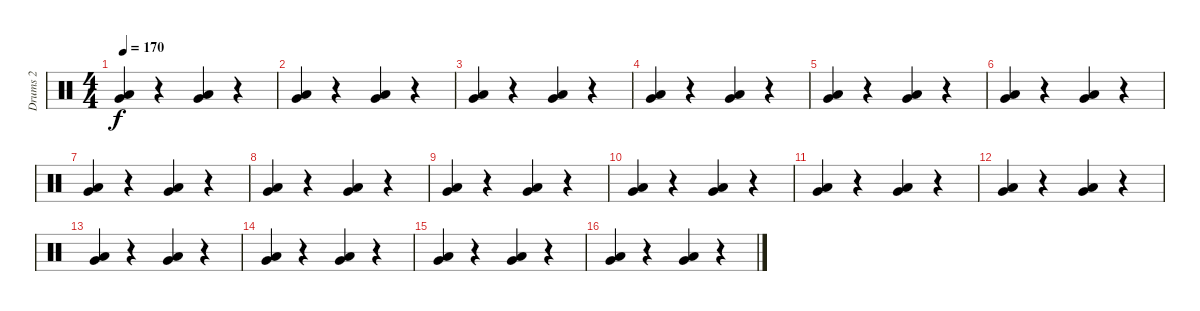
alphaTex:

\track ("Drums 2" "Drums 2") {instrument percussion}
\staff {score}
\articulation defaults
\ts (4 4)
\section ("" "")
\tempo 170
\clef neutral
\ks c
("Very Low Tom (hit)" "Low Tom (hit)").4{dy f} r.4 ("Very Low Tom (hit)" "Low Tom (hit)").4 r.4 |
("Very Low Tom (hit)" "Low Tom (hit)").4 r.4 ("Very Low Tom (hit)" "Low Tom (hit)").4 r.4 |
("Very Low Tom (hit)" "Low Tom (hit)").4 r.4 ("Very Low Tom (hit)" "Low Tom (hit)").4 r.4 |
("Very Low Tom (hit)" "Low Tom (hit)").4 r.4 ("Very Low Tom (hit)" "Low Tom (hit)").4 r.4 |
("Very Low Tom (hit)" "Low Tom (hit)").4 r.4 ("Very Low Tom (hit)" "Low Tom (hit)").4 r.4 |
("Very Low Tom (hit)" "Low Tom (hit)").4 r.4 ("Very Low Tom (hit)" "Low Tom (hit)").4 r.4 |
("Very Low Tom (hit)" "Low Tom (hit)").4 r.4 ("Very Low Tom (hit)" "Low Tom (hit)").4 r.4 |
("Very Low Tom (hit)" "Low Tom (hit)").4 r.4 ("Very Low Tom (hit)" "Low Tom (hit)").4 r.4 |
("Very Low Tom (hit)" "Low Tom (hit)").4 r.4 ("Very Low Tom (hit)" "Low Tom (hit)").4 r.4 |
("Very Low Tom (hit)" "Low Tom (hit)").4 r.4 ("Very Low Tom (hit)" "Low Tom (hit)").4 r.4 |
("Very Low Tom (hit)" "Low Tom (hit)").4 r.4 ("Very Low Tom (hit)" "Low Tom (hit)").4 r.4 |
("Very Low Tom (hit)" "Low Tom (hit)").4 r.4 ("Very Low Tom (hit)" "Low Tom (hit)").4 r.4 |
("Very Low Tom (hit)" "Low Tom (hit)").4 r.4 ("Very Low Tom (hit)" "Low Tom (hit)").4 r.4 |
("Very Low Tom (hit)" "Low Tom (hit)").4 r.4 ("Very Low Tom (hit)" "Low Tom (hit)").4 r.4 |
("Very Low Tom (hit)" "Low Tom (hit)").4 r.4 ("Very Low Tom (hit)" "Low Tom (hit)").4 r.4 |
("Very Low Tom (hit)" "Low Tom (hit)").4 r.4 ("Very Low Tom (hit)" "Low Tom (hit)").4 r.4
